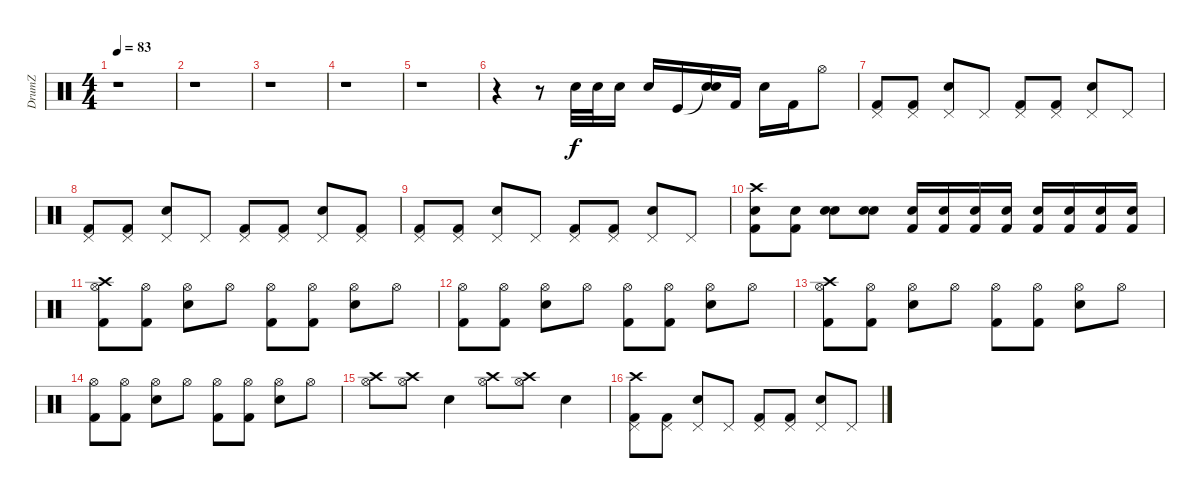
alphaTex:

\track ("DrumZ" "DrumZ") {instrument percussion}
\staff {score}
\articulation defaults
\ts (4 4)
\tempo 83
\clef neutral
\ks c
r.1{dy f} |
r.1 |
r.1 |
r.1 |
r.1 |
r.4 r.8 "Snare (hit) 2".32 "Snare (hit) 2".32 "Snare (hit) 2".16 "Snare (hit) 2".16 "Kick (hit)".16 ("Electric Snare (hit)"{t} "Electric Snare (hit)").16 "Kick (hit) 2".16 "Electric Snare (hit)".16 "Kick (hit) 2".16 "Hi-Hat (open)".8 |
("Pedal Hi-Hat (hit)" "Kick (hit) 2").8 ("Pedal Hi-Hat (hit)" "Kick (hit) 2").8 ("Pedal Hi-Hat (hit)" "Electric Snare (hit)").8 "Pedal Hi-Hat (hit)".8 ("Pedal Hi-Hat (hit)" "Kick (hit) 2").8 ("Pedal Hi-Hat (hit)" "Kick (hit) 2").8 ("Pedal Hi-Hat (hit)" "Electric Snare (hit)").8 "Pedal Hi-Hat (hit)".8 |
("Pedal Hi-Hat (hit)" "Kick (hit) 2").8 ("Pedal Hi-Hat (hit)" "Kick (hit) 2").8 ("Pedal Hi-Hat (hit)" "Electric Snare (hit)").8 "Pedal Hi-Hat (hit)".8 ("Pedal Hi-Hat (hit)" "Kick (hit) 2").8 ("Pedal Hi-Hat (hit)" "Kick (hit) 2").8 ("Pedal Hi-Hat (hit)" "Electric Snare (hit)").8 ("Pedal Hi-Hat (hit)" "Kick (hit) 2").8 |
("Pedal Hi-Hat (hit)" "Kick (hit) 2").8 ("Pedal Hi-Hat (hit)" "Kick (hit) 2").8 ("Pedal Hi-Hat (hit)" "Electric Snare (hit)").8 "Pedal Hi-Hat (hit)".8 ("Pedal Hi-Hat (hit)" "Kick (hit) 2").8 ("Pedal Hi-Hat (hit)" "Kick (hit) 2").8 ("Pedal Hi-Hat (hit)" "Electric Snare (hit)").8 "Pedal Hi-Hat (hit)".8 |
("Snare (hit) 2" "Crash high (hit)" "Kick (hit) 2").8 ("Snare (hit) 2" "Kick (hit) 2").8 ("Snare (hit) 2" "Electric Snare (hit)").8 ("Snare (hit) 2" "Electric Snare (hit)").8 ("Snare (hit) 2" "Kick (hit) 2").16 ("Snare (hit) 2" "Kick (hit) 2").16 ("Snare (hit) 2" "Kick (hit) 2").16 ("Snare (hit) 2" "Kick (hit) 2").16 ("Snare (hit) 2" "Kick (hit) 2").16 ("Snare (hit) 2" "Kick (hit) 2").16 ("Snare (hit) 2" "Kick (hit) 2").16 ("Snare (hit) 2" "Kick (hit) 2").16 |
("Hi-Hat (open)" "Crash high (hit)" "Kick (hit) 2").8 ("Hi-Hat (open)" "Kick (hit) 2").8 ("Hi-Hat (open)" "Electric Snare (hit)").8 "Hi-Hat (open)".8 ("Hi-Hat (open)" "Kick (hit) 2").8 ("Hi-Hat (open)" "Kick (hit) 2").8 ("Hi-Hat (open)" "Electric Snare (hit)").8 "Hi-Hat (open)".8 |
("Hi-Hat (open)" "Kick (hit) 2").8 ("Hi-Hat (open)" "Kick (hit) 2").8 ("Hi-Hat (open)" "Electric Snare (hit)").8 "Hi-Hat (open)".8 ("Hi-Hat (open)" "Kick (hit) 2").8 ("Hi-Hat (open)" "Kick (hit) 2").8 ("Hi-Hat (open)" "Electric Snare (hit)").8 "Hi-Hat (open)".8 |
("Hi-Hat (open)" "Crash high (hit)" "Kick (hit) 2").8 ("Hi-Hat (open)" "Kick (hit) 2").8 ("Hi-Hat (open)" "Electric Snare (hit)").8 "Hi-Hat (open)".8 ("Hi-Hat (open)" "Kick (hit) 2").8 ("Hi-Hat (open)" "Kick (hit) 2").8 ("Hi-Hat (open)" "Electric Snare (hit)").8 "Hi-Hat (open)".8 |
("Hi-Hat (open)" "Kick (hit) 2").8 ("Hi-Hat (open)" "Kick (hit) 2").8 ("Hi-Hat (open)" "Electric Snare (hit)").8 "Hi-Hat (open)".8 ("Hi-Hat (open)" "Kick (hit) 2").8 ("Hi-Hat (open)" "Kick (hit) 2").8 ("Hi-Hat (open)" "Electric Snare (hit)").8 "Hi-Hat (open)".8 |
("Crash high (hit)" "Hi-Hat (open)").8 ("Crash high (hit)" "Hi-Hat (open)").8 "Electric Snare (hit)".4 ("Crash high (hit)" "Hi-Hat (open)").8 ("Crash high (hit)" "Hi-Hat (open)").8 "Electric Snare (hit)".4 |
("Pedal Hi-Hat (hit)" "Crash high (hit)" "Kick (hit) 2").8 ("Pedal Hi-Hat (hit)" "Kick (hit) 2").8 ("Pedal Hi-Hat (hit)" "Electric Snare (hit)").8 "Pedal Hi-Hat (hit)".8 ("Pedal Hi-Hat (hit)" "Kick (hit) 2").8 ("Pedal Hi-Hat (hit)" "Kick (hit) 2").8 ("Pedal Hi-Hat (hit)" "Electric Snare (hit)").8 "Pedal Hi-Hat (hit)".8
